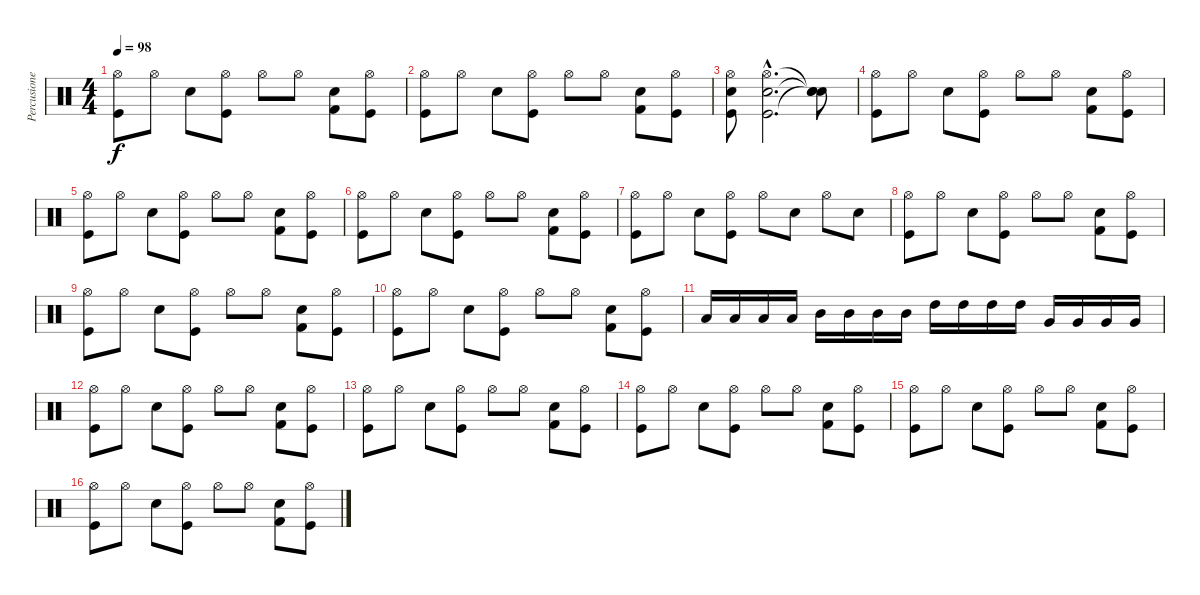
\track ("Percusiones" "Percusione") {instrument percussion}
\staff {score}
\articulation defaults
\ts (4 4)
\tempo 98
\clef neutral
\ks c
("Hi-Hat (open)" "Kick (hit)").8{dy f} "Hi-Hat (open)".8 "Electric Snare (hit)".8 ("Hi-Hat (open)" "Kick (hit)").8 "Hi-Hat (open)".8 "Hi-Hat (open)".8 ("Electric Snare (hit)" "Kick (hit) 2").8 ("Hi-Hat (open)" "Kick (hit)").8 |
("Hi-Hat (open)" "Kick (hit)").8 "Hi-Hat (open)".8 "Electric Snare (hit)".8 ("Hi-Hat (open)" "Kick (hit)").8 "Hi-Hat (open)".8 "Hi-Hat (open)".8 ("Electric Snare (hit)" "Kick (hit) 2").8 ("Hi-Hat (open)" "Kick (hit)").8 |
("Electric Snare (hit)" "Hi-Hat (open)" "Kick (hit)").8 ("Electric Snare (hit)"{hac} "Hi-Hat (open)"{hac} "Kick (hit)"{hac}).2{d} ("Snare (hit)"{t} "Snare (hit)"{t} "Snare (hit)"{t}).8 |
("Hi-Hat (open)" "Kick (hit)").8 "Hi-Hat (open)".8 "Electric Snare (hit)".8 ("Hi-Hat (open)" "Kick (hit)").8 "Hi-Hat (open)".8 "Hi-Hat (open)".8 ("Electric Snare (hit)" "Kick (hit) 2").8 ("Hi-Hat (open)" "Kick (hit)").8 |
("Hi-Hat (open)" "Kick (hit)").8 "Hi-Hat (open)".8 "Electric Snare (hit)".8 ("Hi-Hat (open)" "Kick (hit)").8 "Hi-Hat (open)".8 "Hi-Hat (open)".8 ("Electric Snare (hit)" "Kick (hit) 2").8 ("Hi-Hat (open)" "Kick (hit)").8 |
("Hi-Hat (open)" "Kick (hit)").8 "Hi-Hat (open)".8 "Electric Snare (hit)".8 ("Hi-Hat (open)" "Kick (hit)").8 "Hi-Hat (open)".8 "Hi-Hat (open)".8 ("Electric Snare (hit)" "Kick (hit) 2").8 ("Hi-Hat (open)" "Kick (hit)").8 |
("Hi-Hat (open)" "Kick (hit)").8 "Hi-Hat (open)".8 "Electric Snare (hit)".8 ("Hi-Hat (open)" "Kick (hit)").8 "Hi-Hat (open)".8 "Electric Snare (hit)".8 "Hi-Hat (open)".8 "Electric Snare (hit)".8 |
("Hi-Hat (open)" "Kick (hit)").8 "Hi-Hat (open)".8 "Electric Snare (hit)".8 ("Hi-Hat (open)" "Kick (hit)").8 "Hi-Hat (open)".8 "Hi-Hat (open)".8 ("Electric Snare (hit)" "Kick (hit) 2").8 ("Hi-Hat (open)" "Kick (hit)").8 |
("Hi-Hat (open)" "Kick (hit)").8 "Hi-Hat (open)".8 "Electric Snare (hit)".8 ("Hi-Hat (open)" "Kick (hit)").8 "Hi-Hat (open)".8 "Hi-Hat (open)".8 ("Electric Snare (hit)" "Kick (hit) 2").8 ("Hi-Hat (open)" "Kick (hit)").8 |
("Hi-Hat (open)" "Kick (hit)").8 "Hi-Hat (open)".8 "Electric Snare (hit)".8 ("Hi-Hat (open)" "Kick (hit)").8 "Hi-Hat (open)".8 "Hi-Hat (open)".8 ("Electric Snare (hit)" "Kick (hit) 2").8 ("Hi-Hat (open)" "Kick (hit)").8 |
"Low Tom (hit)".16 "Low Tom (hit)".16 "Low Tom (hit)".16 "Low Tom (hit)".16 "Mid Tom (hit)".16 "Mid Tom (hit)".16 "Mid Tom (hit)".16 "Mid Tom (hit)".16 "High Tom (hit)".16 "High Tom (hit)".16 "High Tom (hit)".16 "High Tom (hit)".16 "Very Low Tom (hit)".16 "Very Low Tom (hit)".16 "Very Low Tom (hit)".16 "Very Low Tom (hit)".16 |
("Hi-Hat (open)" "Kick (hit)").8 "Hi-Hat (open)".8 "Electric Snare (hit)".8 ("Hi-Hat (open)" "Kick (hit)").8 "Hi-Hat (open)".8 "Hi-Hat (open)".8 ("Electric Snare (hit)" "Kick (hit) 2").8 ("Hi-Hat (open)" "Kick (hit)").8 |
("Hi-Hat (open)" "Kick (hit)").8 "Hi-Hat (open)".8 "Electric Snare (hit)".8 ("Hi-Hat (open)" "Kick (hit)").8 "Hi-Hat (open)".8 "Hi-Hat (open)".8 ("Electric Snare (hit)" "Kick (hit) 2").8 ("Hi-Hat (open)" "Kick (hit)").8 |
("Hi-Hat (open)" "Kick (hit)").8 "Hi-Hat (open)".8 "Electric Snare (hit)".8 ("Hi-Hat (open)" "Kick (hit)").8 "Hi-Hat (open)".8 "Hi-Hat (open)".8 ("Electric Snare (hit)" "Kick (hit) 2").8 ("Hi-Hat (open)" "Kick (hit)").8 |
("Hi-Hat (open)" "Kick (hit)").8 "Hi-Hat (open)".8 "Electric Snare (hit)".8 ("Hi-Hat (open)" "Kick (hit)").8 "Hi-Hat (open)".8 "Hi-Hat (open)".8 ("Electric Snare (hit)" "Kick (hit) 2").8 ("Hi-Hat (open)" "Kick (hit)").8 |
("Hi-Hat (open)" "Kick (hit)").8 "Hi-Hat (open)".8 "Electric Snare (hit)".8 ("Hi-Hat (open)" "Kick (hit)").8 "Hi-Hat (open)".8 "Hi-Hat (open)".8 ("Electric Snare (hit)" "Kick (hit) 2").8 ("Hi-Hat (open)" "Kick (hit)").8
